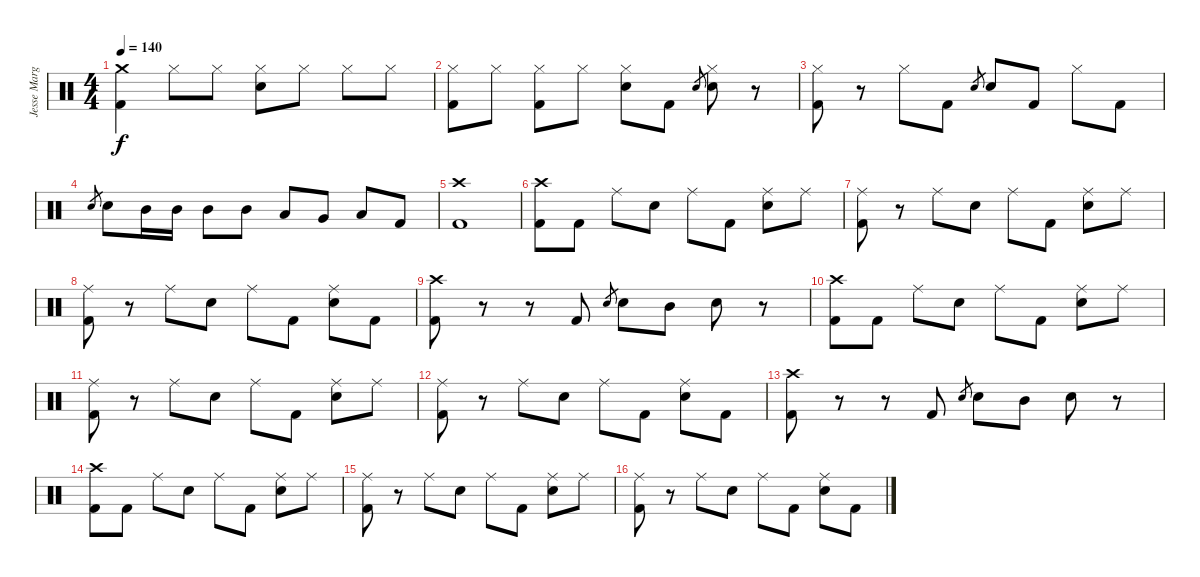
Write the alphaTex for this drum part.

\track ("Jesse Margera" "Jesse Marg") {instrument percussion}
\staff {score}
\articulation defaults
\ts (4 4)
\tempo 140
\clef neutral
\ks c
("Crash medium (hit)" "Kick (hit) 2").4{dy f} "Hi-Hat (closed)".8 "Hi-Hat (closed)".8 ("Hi-Hat (closed)" "Electric Snare (hit)").8 "Hi-Hat (closed)".8 "Hi-Hat (closed)".8 "Hi-Hat (closed)".8 |
("Hi-Hat (closed)" "Kick (hit) 2").8 "Hi-Hat (closed)".8 ("Hi-Hat (closed)" "Kick (hit) 2").8 "Hi-Hat (closed)".8 ("Hi-Hat (closed)" "Electric Snare (hit)").8 "Kick (hit) 2".8 "Electric Snare (hit)".8{gr} ("Hi-Hat (closed)" "Electric Snare (hit)").8 r.8 |
("Hi-Hat (closed)" "Kick (hit) 2").8 r.8 "Hi-Hat (closed)".8 "Kick (hit) 2".8 "Electric Snare (hit)".8{gr} "Electric Snare (hit)".8 "Kick (hit) 2".8 "Hi-Hat (closed)".8 "Kick (hit) 2".8 |
"Electric Snare (hit)".8{gr} "Electric Snare (hit)".8 "Mid Tom (hit)".16 "Mid Tom (hit)".16 "Mid Tom (hit)".8 "Mid Tom (hit)".8 "Low Tom (hit)".8 "Very Low Tom (hit)".8 "Low Floor Tom (hit)".8 "Kick (hit) 2".8 |
("Crash high (hit)" "Kick (hit) 2").1 |
("Crash high (hit)" "Kick (hit) 2").8 "Kick (hit) 2".8 "Ride (middle)".8 "Electric Snare (hit)".8 "Ride (middle)".8 "Kick (hit) 2".8 ("Ride (middle)" "Electric Snare (hit)").8 "Ride (middle)".8 |
("Ride (middle)" "Kick (hit) 2").8 r.8 "Ride (middle)".8 "Electric Snare (hit)".8 "Ride (middle)".8 "Kick (hit) 2".8 ("Ride (middle)" "Electric Snare (hit)").8 "Ride (middle)".8 |
("Ride (middle)" "Kick (hit) 2").8 r.8 "Ride (middle)".8 "Electric Snare (hit)".8 "Ride (middle)".8 "Kick (hit) 2".8 ("Ride (middle)" "Electric Snare (hit)").8 "Kick (hit) 2".8 |
("Crash high (hit)" "Kick (hit) 2").8 r.8 r.8 "Kick (hit) 2".8 "Electric Snare (hit)".8{gr} "Electric Snare (hit)".8 "Mid Tom (hit)".8 "Electric Snare (hit)".8 r.8 |
("Crash high (hit)" "Kick (hit) 2").8 "Kick (hit) 2".8 "Ride (middle)".8 "Electric Snare (hit)".8 "Ride (middle)".8 "Kick (hit) 2".8 ("Ride (middle)" "Electric Snare (hit)").8 "Ride (middle)".8 |
("Ride (middle)" "Kick (hit) 2").8 r.8 "Ride (middle)".8 "Electric Snare (hit)".8 "Ride (middle)".8 "Kick (hit) 2".8 ("Ride (middle)" "Electric Snare (hit)").8 "Ride (middle)".8 |
("Ride (middle)" "Kick (hit) 2").8 r.8 "Ride (middle)".8 "Electric Snare (hit)".8 "Ride (middle)".8 "Kick (hit) 2".8 ("Ride (middle)" "Electric Snare (hit)").8 "Kick (hit) 2".8 |
("Crash high (hit)" "Kick (hit) 2").8 r.8 r.8 "Kick (hit) 2".8 "Electric Snare (hit)".8{gr} "Electric Snare (hit)".8 "Mid Tom (hit)".8 "Electric Snare (hit)".8 r.8 |
("Crash high (hit)" "Kick (hit) 2").8 "Kick (hit) 2".8 "Ride (middle)".8 "Electric Snare (hit)".8 "Ride (middle)".8 "Kick (hit) 2".8 ("Ride (middle)" "Electric Snare (hit)").8 "Ride (middle)".8 |
("Ride (middle)" "Kick (hit) 2").8 r.8 "Ride (middle)".8 "Electric Snare (hit)".8 "Ride (middle)".8 "Kick (hit) 2".8 ("Ride (middle)" "Electric Snare (hit)").8 "Ride (middle)".8 |
("Ride (middle)" "Kick (hit) 2").8 r.8 "Ride (middle)".8 "Electric Snare (hit)".8 "Ride (middle)".8 "Kick (hit) 2".8 ("Ride (middle)" "Electric Snare (hit)").8 "Kick (hit) 2".8
